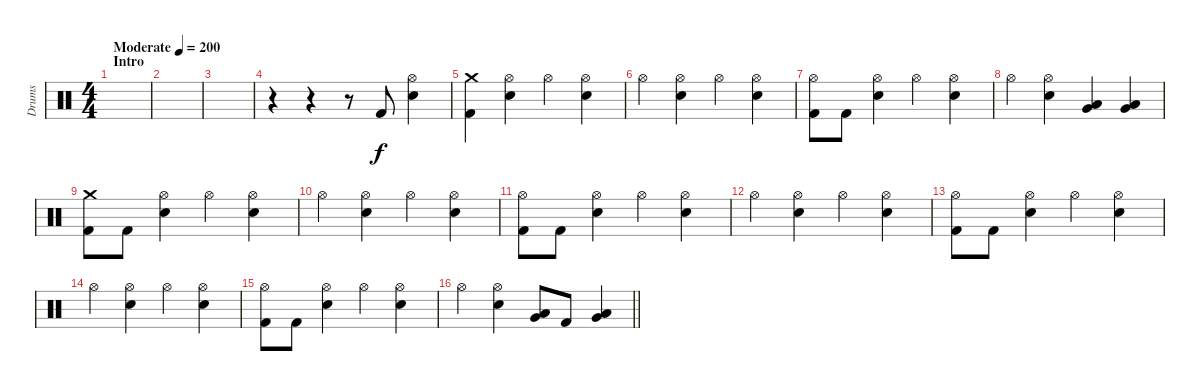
\track ("Drums" "Drums") {instrument percussion}
\staff {score}
\articulation defaults
\ts (4 4)
\section ("" "Intro")
\tempo (200 "Moderate")
\clef neutral
\ks c
|
|
|
r.4 r.4 r.8 "Kick (hit) 2".8 ("Hi-Hat (open)" "Electric Snare (hit)").4 |
("Crash medium (hit)" "Kick (hit) 2").4 ("Hi-Hat (open)" "Electric Snare (hit)").4 "Hi-Hat (open)".4 ("Hi-Hat (open)" "Electric Snare (hit)").4 |
"Hi-Hat (open)".4 ("Hi-Hat (open)" "Electric Snare (hit)").4 "Hi-Hat (open)".4 ("Hi-Hat (open)" "Electric Snare (hit)").4 |
("Hi-Hat (open)" "Kick (hit) 2").8 "Kick (hit) 2".8 ("Hi-Hat (open)" "Electric Snare (hit)").4 "Hi-Hat (open)".4 ("Hi-Hat (open)" "Electric Snare (hit)").4 |
"Hi-Hat (open)".4 ("Hi-Hat (open)" "Electric Snare (hit)").4 ("Low Floor Tom (hit)" "Very Low Tom (hit)").4 ("Low Floor Tom (hit)" "Very Low Tom (hit)").4 |
("Crash medium (hit)" "Kick (hit) 2").8 "Kick (hit) 2".8 ("Hi-Hat (open)" "Electric Snare (hit)").4 "Hi-Hat (open)".4 ("Hi-Hat (open)" "Electric Snare (hit)").4 |
"Hi-Hat (open)".4 ("Hi-Hat (open)" "Electric Snare (hit)").4 "Hi-Hat (open)".4 ("Hi-Hat (open)" "Electric Snare (hit)").4 |
("Hi-Hat (open)" "Kick (hit) 2").8 "Kick (hit) 2".8 ("Hi-Hat (open)" "Electric Snare (hit)").4 "Hi-Hat (open)".4 ("Hi-Hat (open)" "Electric Snare (hit)").4 |
"Hi-Hat (open)".4 ("Hi-Hat (open)" "Electric Snare (hit)").4 "Hi-Hat (open)".4 ("Hi-Hat (open)" "Electric Snare (hit)").4 |
("Hi-Hat (open)" "Kick (hit) 2").8 "Kick (hit) 2".8 ("Hi-Hat (open)" "Electric Snare (hit)").4 "Hi-Hat (open)".4 ("Hi-Hat (open)" "Electric Snare (hit)").4 |
"Hi-Hat (open)".4 ("Hi-Hat (open)" "Electric Snare (hit)").4 "Hi-Hat (open)".4 ("Hi-Hat (open)" "Electric Snare (hit)").4 |
("Hi-Hat (open)" "Kick (hit) 2").8 "Kick (hit) 2".8 ("Hi-Hat (open)" "Electric Snare (hit)").4 "Hi-Hat (open)".4 ("Hi-Hat (open)" "Electric Snare (hit)").4 |
\barLineRight lightlight "Hi-Hat (open)".4
("Hi-Hat (open)" "Electric Snare (hit)").4 ("Very Low Tom (hit)" "Low Floor Tom (hit)").8 "Kick (hit) 2".8 ("Very Low Tom (hit)" "Low Floor Tom (hit)").4
